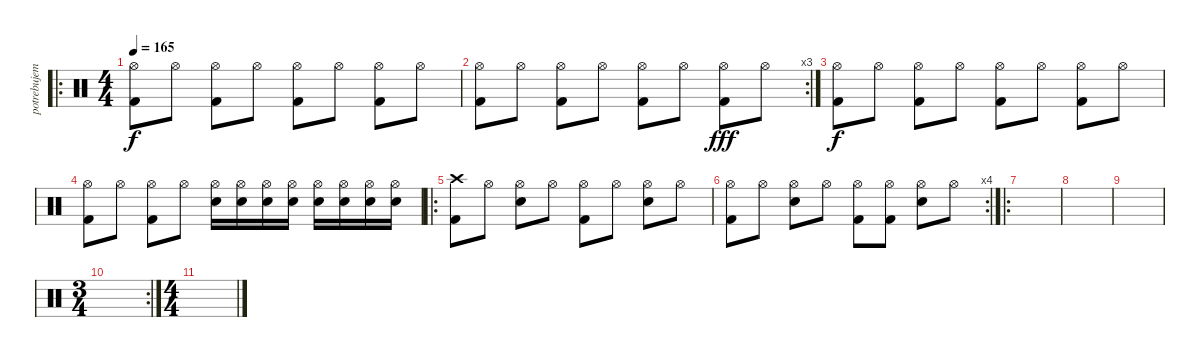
\track ("potrebujem pomoc z bicími" "potrebujem") {instrument percussion}
\staff {score}
\articulation defaults
\ro
\ts (4 4)
\tempo 165
\clef neutral
\ks c
("Hi-Hat (open)" "Kick (hit) 2").8{dy f} "Hi-Hat (open)".8 ("Hi-Hat (open)" "Kick (hit) 2").8 "Hi-Hat (open)".8 ("Hi-Hat (open)" "Kick (hit) 2").8 "Hi-Hat (open)".8 ("Hi-Hat (open)" "Kick (hit) 2").8 "Hi-Hat (open)".8 |
\rc 3
("Hi-Hat (open)" "Kick (hit) 2").8 "Hi-Hat (open)".8 ("Hi-Hat (open)" "Kick (hit) 2").8 "Hi-Hat (open)".8 ("Hi-Hat (open)" "Kick (hit) 2").8 "Hi-Hat (open)".8 ("Hi-Hat (open)" "Kick (hit) 2").8{dy fff} "Hi-Hat (open)".8 |
("Hi-Hat (open)" "Kick (hit) 2").8{dy f} "Hi-Hat (open)".8 ("Hi-Hat (open)" "Kick (hit) 2").8 "Hi-Hat (open)".8 ("Hi-Hat (open)" "Kick (hit) 2").8 "Hi-Hat (open)".8 ("Hi-Hat (open)" "Kick (hit) 2").8 "Hi-Hat (open)".8 |
("Hi-Hat (open)" "Kick (hit) 2").8 "Hi-Hat (open)".8 ("Hi-Hat (open)" "Kick (hit) 2").8 "Hi-Hat (open)".8 ("Hi-Hat (open)" "Electric Snare (hit)").16 ("Hi-Hat (open)" "Electric Snare (hit)").16 ("Hi-Hat (open)" "Electric Snare (hit)").16 ("Hi-Hat (open)" "Electric Snare (hit)").16 ("Hi-Hat (open)" "Electric Snare (hit)").16 ("Hi-Hat (open)" "Electric Snare (hit)").16 ("Hi-Hat (open)" "Electric Snare (hit)").16 ("Hi-Hat (open)" "Electric Snare (hit)").16 |
\ro
("Crash high (hit)" "Kick (hit) 2").8 "Hi-Hat (open)".8 ("Hi-Hat (open)" "Electric Snare (hit)").8 "Hi-Hat (open)".8 ("Hi-Hat (open)" "Kick (hit) 2").8 "Hi-Hat (open)".8 ("Hi-Hat (open)" "Electric Snare (hit)").8 "Hi-Hat (open)".8 |
\rc 4
("Hi-Hat (open)" "Kick (hit) 2").8 "Hi-Hat (open)".8 ("Hi-Hat (open)" "Electric Snare (hit)").8 "Hi-Hat (open)".8 ("Hi-Hat (open)" "Kick (hit) 2").8 ("Hi-Hat (open)" "Kick (hit) 2").8 ("Hi-Hat (open)" "Electric Snare (hit)").8 "Hi-Hat (open)".8 |
\ro
|
|
|
\rc 2
\ts (3 4)
|
\ts (4 4)
